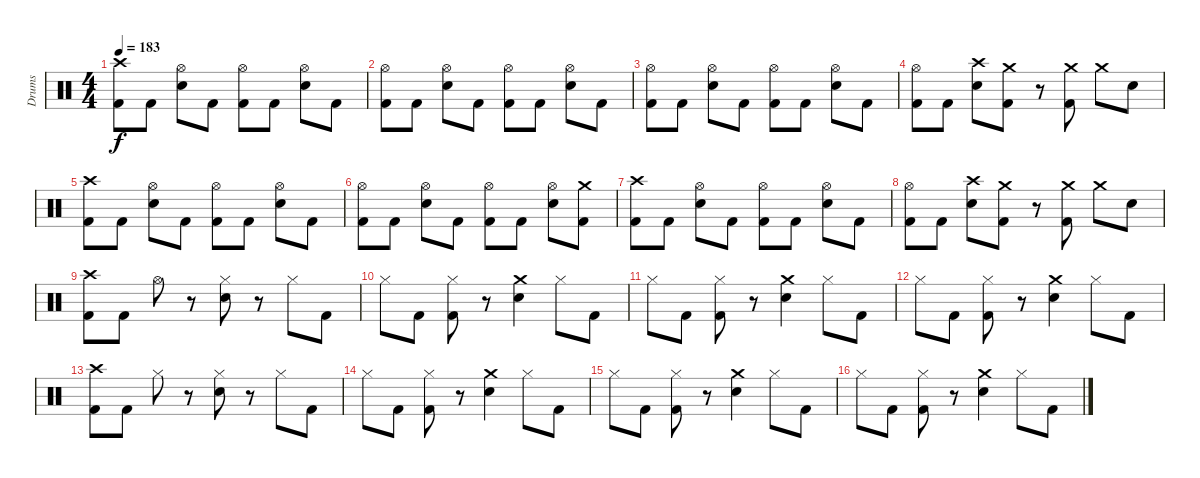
\track ("Drums" "Drums") {instrument percussion}
\staff {score}
\articulation defaults
\ts (4 4)
\tempo 183
\clef neutral
\ks c
("Crash high (hit)" "Kick (hit) 2").8{dy f} "Kick (hit) 2".8 ("Hi-Hat (open)" "Snare (hit) 2").8 "Kick (hit) 2".8 ("Hi-Hat (open)" "Kick (hit) 2").8 "Kick (hit) 2".8 ("Hi-Hat (open)" "Snare (hit) 2").8 "Kick (hit) 2".8 |
("Hi-Hat (open)" "Kick (hit) 2").8 "Kick (hit) 2".8 ("Hi-Hat (open)" "Snare (hit) 2").8 "Kick (hit) 2".8 ("Hi-Hat (open)" "Kick (hit) 2").8 "Kick (hit) 2".8 ("Hi-Hat (open)" "Snare (hit) 2").8 "Kick (hit) 2".8 |
("Hi-Hat (open)" "Kick (hit) 2").8 "Kick (hit) 2".8 ("Hi-Hat (open)" "Snare (hit) 2").8 "Kick (hit) 2".8 ("Hi-Hat (open)" "Kick (hit) 2").8 "Kick (hit) 2".8 ("Hi-Hat (open)" "Snare (hit) 2").8 "Kick (hit) 2".8 |
("Hi-Hat (open)" "Kick (hit) 2").8 "Kick (hit) 2".8 ("Crash high (hit)" "Snare (hit) 2").8 ("Crash medium (hit)" "Kick (hit) 2").8 r.8 ("Crash medium (hit)" "Kick (hit) 2").8 "Crash medium (hit)".8 "Snare (hit) 2".8 |
("Crash high (hit)" "Kick (hit) 2").8 "Kick (hit) 2".8 ("Hi-Hat (open)" "Snare (hit) 2").8 "Kick (hit) 2".8 ("Hi-Hat (open)" "Kick (hit) 2").8 "Kick (hit) 2".8 ("Hi-Hat (open)" "Snare (hit) 2").8 "Kick (hit) 2".8 |
("Hi-Hat (open)" "Kick (hit) 2").8 "Kick (hit) 2".8 ("Hi-Hat (open)" "Snare (hit) 2").8 "Kick (hit) 2".8 ("Hi-Hat (open)" "Kick (hit) 2").8 "Kick (hit) 2".8 ("Hi-Hat (open)" "Snare (hit) 2").8 ("Crash medium (hit)" "Kick (hit) 2").8 |
("Crash high (hit)" "Kick (hit) 2").8 "Kick (hit) 2".8 ("Hi-Hat (open)" "Snare (hit) 2").8 "Kick (hit) 2".8 ("Hi-Hat (open)" "Kick (hit) 2").8 "Kick (hit) 2".8 ("Hi-Hat (open)" "Snare (hit) 2").8 "Kick (hit) 2".8 |
("Hi-Hat (open)" "Kick (hit) 2").8 "Kick (hit) 2".8 ("Crash high (hit)" "Snare (hit) 2").8 ("Crash medium (hit)" "Kick (hit) 2").8 r.8 ("Crash medium (hit)" "Kick (hit) 2").8 "Crash medium (hit)".8 "Snare (hit) 2".8 |
("Crash high (hit)" "Kick (hit) 2").8 "Kick (hit) 2".8 "Hi-Hat (open)".8 r.8 ("Hi-Hat (closed)" "Snare (hit) 2").8 r.8 "Hi-Hat (closed)".8 "Kick (hit) 2".8 |
"Hi-Hat (closed)".8 "Kick (hit) 2".8 ("Hi-Hat (closed)" "Kick (hit) 2").8 r.8 ("Crash medium (hit)" "Snare (hit) 2").4 "Hi-Hat (closed)".8 "Kick (hit) 2".8 |
"Hi-Hat (closed)".8 "Kick (hit) 2".8 ("Hi-Hat (closed)" "Kick (hit) 2").8 r.8 ("Crash medium (hit)" "Snare (hit) 2").4 "Hi-Hat (closed)".8 "Kick (hit) 2".8 |
"Hi-Hat (closed)".8 "Kick (hit) 2".8 ("Hi-Hat (closed)" "Kick (hit) 2").8 r.8 ("Crash medium (hit)" "Snare (hit) 2").4 "Hi-Hat (closed)".8 "Kick (hit) 2".8 |
("Crash high (hit)" "Kick (hit) 2").8 "Kick (hit) 2".8 "Hi-Hat (closed)".8 r.8 ("Hi-Hat (closed)" "Snare (hit) 2").8 r.8 "Hi-Hat (closed)".8 "Kick (hit) 2".8 |
"Hi-Hat (closed)".8 "Kick (hit) 2".8 ("Hi-Hat (closed)" "Kick (hit) 2").8 r.8 ("Crash medium (hit)" "Snare (hit) 2").4 "Hi-Hat (closed)".8 "Kick (hit) 2".8 |
"Hi-Hat (closed)".8 "Kick (hit) 2".8 ("Hi-Hat (closed)" "Kick (hit) 2").8 r.8 ("Crash medium (hit)" "Snare (hit) 2").4 "Hi-Hat (closed)".8 "Kick (hit) 2".8 |
"Hi-Hat (closed)".8 "Kick (hit) 2".8 ("Hi-Hat (closed)" "Kick (hit) 2").8 r.8 ("Crash medium (hit)" "Snare (hit) 2").4 "Hi-Hat (closed)".8 "Kick (hit) 2".8
